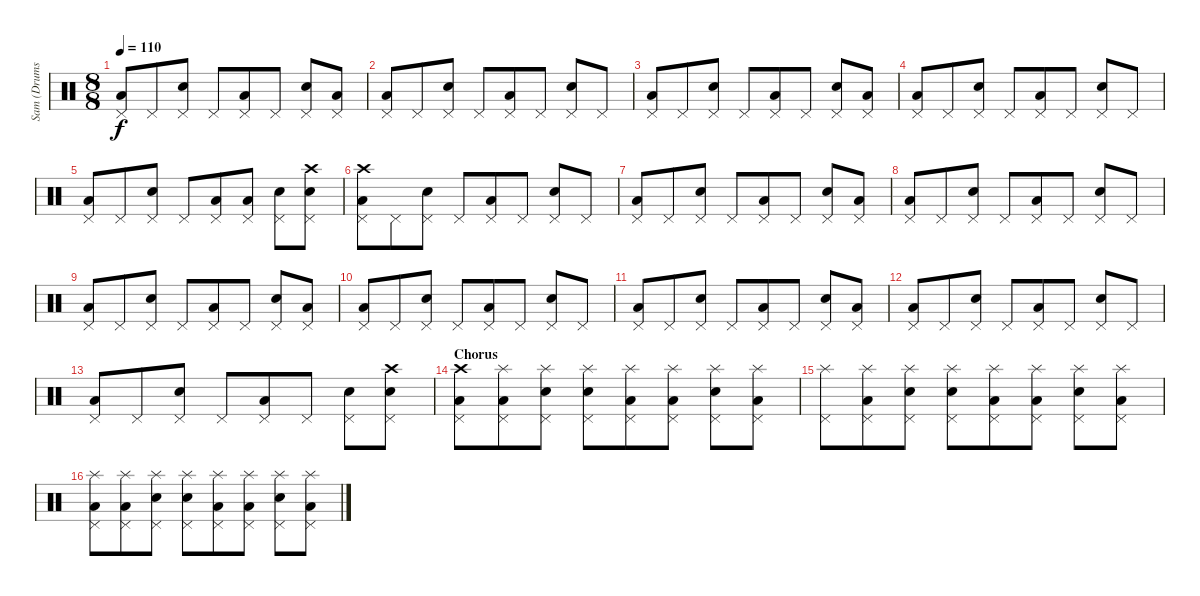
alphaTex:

\track ("Sam (Drums)" "Sam (Drums") {instrument percussion}
\staff {score}
\articulation defaults
\ts (8 8)
\tempo 110
\clef neutral
\ks c
("Low Tom (hit)" "Pedal Hi-Hat (hit)").8{dy f} "Pedal Hi-Hat (hit)".8 ("Snare (hit) 2" "Pedal Hi-Hat (hit)").8 "Pedal Hi-Hat (hit)".8 ("Low Tom (hit)" "Pedal Hi-Hat (hit)").8 "Pedal Hi-Hat (hit)".8 ("Snare (hit) 2" "Pedal Hi-Hat (hit)").8 ("Low Tom (hit)" "Pedal Hi-Hat (hit)").8 |
("Low Tom (hit)" "Pedal Hi-Hat (hit)").8 "Pedal Hi-Hat (hit)".8 ("Snare (hit) 2" "Pedal Hi-Hat (hit)").8 "Pedal Hi-Hat (hit)".8 ("Low Tom (hit)" "Pedal Hi-Hat (hit)").8 "Pedal Hi-Hat (hit)".8 ("Snare (hit) 2" "Pedal Hi-Hat (hit)").8 "Pedal Hi-Hat (hit)".8 |
("Low Tom (hit)" "Pedal Hi-Hat (hit)").8 "Pedal Hi-Hat (hit)".8 ("Snare (hit) 2" "Pedal Hi-Hat (hit)").8 "Pedal Hi-Hat (hit)".8 ("Low Tom (hit)" "Pedal Hi-Hat (hit)").8 "Pedal Hi-Hat (hit)".8 ("Snare (hit) 2" "Pedal Hi-Hat (hit)").8 ("Low Tom (hit)" "Pedal Hi-Hat (hit)").8 |
("Low Tom (hit)" "Pedal Hi-Hat (hit)").8 "Pedal Hi-Hat (hit)".8 ("Snare (hit) 2" "Pedal Hi-Hat (hit)").8 "Pedal Hi-Hat (hit)".8 ("Low Tom (hit)" "Pedal Hi-Hat (hit)").8 "Pedal Hi-Hat (hit)".8 ("Snare (hit) 2" "Pedal Hi-Hat (hit)").8 "Pedal Hi-Hat (hit)".8 |
("Low Tom (hit)" "Pedal Hi-Hat (hit)").8 "Pedal Hi-Hat (hit)".8 ("Snare (hit) 2" "Pedal Hi-Hat (hit)").8 "Pedal Hi-Hat (hit)".8 ("Low Tom (hit)" "Pedal Hi-Hat (hit)").8 ("Low Tom (hit)" "Pedal Hi-Hat (hit)").8 ("Snare (hit) 2" "Pedal Hi-Hat (hit)").8 ("Crash high (hit)" "Snare (hit) 2" "Pedal Hi-Hat (hit)").8 |
("Crash high (hit)" "Low Tom (hit)" "Pedal Hi-Hat (hit)").8 "Pedal Hi-Hat (hit)".8 ("Snare (hit) 2" "Pedal Hi-Hat (hit)").8 "Pedal Hi-Hat (hit)".8 ("Low Tom (hit)" "Pedal Hi-Hat (hit)").8 "Pedal Hi-Hat (hit)".8 ("Snare (hit) 2" "Pedal Hi-Hat (hit)").8 "Pedal Hi-Hat (hit)".8 |
("Low Tom (hit)" "Pedal Hi-Hat (hit)").8 "Pedal Hi-Hat (hit)".8 ("Snare (hit) 2" "Pedal Hi-Hat (hit)").8 "Pedal Hi-Hat (hit)".8 ("Low Tom (hit)" "Pedal Hi-Hat (hit)").8 "Pedal Hi-Hat (hit)".8 ("Snare (hit) 2" "Pedal Hi-Hat (hit)").8 ("Low Tom (hit)" "Pedal Hi-Hat (hit)").8 |
("Low Tom (hit)" "Pedal Hi-Hat (hit)").8 "Pedal Hi-Hat (hit)".8 ("Snare (hit) 2" "Pedal Hi-Hat (hit)").8 "Pedal Hi-Hat (hit)".8 ("Low Tom (hit)" "Pedal Hi-Hat (hit)").8 "Pedal Hi-Hat (hit)".8 ("Snare (hit) 2" "Pedal Hi-Hat (hit)").8 "Pedal Hi-Hat (hit)".8 |
("Low Tom (hit)" "Pedal Hi-Hat (hit)").8 "Pedal Hi-Hat (hit)".8 ("Snare (hit) 2" "Pedal Hi-Hat (hit)").8 "Pedal Hi-Hat (hit)".8 ("Low Tom (hit)" "Pedal Hi-Hat (hit)").8 "Pedal Hi-Hat (hit)".8 ("Snare (hit) 2" "Pedal Hi-Hat (hit)").8 ("Low Tom (hit)" "Pedal Hi-Hat (hit)").8 |
("Low Tom (hit)" "Pedal Hi-Hat (hit)").8 "Pedal Hi-Hat (hit)".8 ("Snare (hit) 2" "Pedal Hi-Hat (hit)").8 "Pedal Hi-Hat (hit)".8 ("Low Tom (hit)" "Pedal Hi-Hat (hit)").8 "Pedal Hi-Hat (hit)".8 ("Snare (hit) 2" "Pedal Hi-Hat (hit)").8 "Pedal Hi-Hat (hit)".8 |
("Low Tom (hit)" "Pedal Hi-Hat (hit)").8 "Pedal Hi-Hat (hit)".8 ("Snare (hit) 2" "Pedal Hi-Hat (hit)").8 "Pedal Hi-Hat (hit)".8 ("Low Tom (hit)" "Pedal Hi-Hat (hit)").8 "Pedal Hi-Hat (hit)".8 ("Snare (hit) 2" "Pedal Hi-Hat (hit)").8 ("Low Tom (hit)" "Pedal Hi-Hat (hit)").8 |
("Low Tom (hit)" "Pedal Hi-Hat (hit)").8 "Pedal Hi-Hat (hit)".8 ("Snare (hit) 2" "Pedal Hi-Hat (hit)").8 "Pedal Hi-Hat (hit)".8 ("Low Tom (hit)" "Pedal Hi-Hat (hit)").8 "Pedal Hi-Hat (hit)".8 ("Snare (hit) 2" "Pedal Hi-Hat (hit)").8 "Pedal Hi-Hat (hit)".8 |
("Low Tom (hit)" "Pedal Hi-Hat (hit)").8 "Pedal Hi-Hat (hit)".8 ("Snare (hit) 2" "Pedal Hi-Hat (hit)").8 "Pedal Hi-Hat (hit)".8 ("Low Tom (hit)" "Pedal Hi-Hat (hit)").8 "Pedal Hi-Hat (hit)".8 ("Snare (hit) 2" "Pedal Hi-Hat (hit)").8 ("Crash high (hit)" "Snare (hit) 2" "Pedal Hi-Hat (hit)").8 |
\section ("" "Chorus")
("Crash high (hit)" "Low Tom (hit)" "Pedal Hi-Hat (hit)").8 ("Splash (hit)" "Low Tom (hit)" "Pedal Hi-Hat (hit)").8 ("Splash (hit)" "Snare (hit) 2" "Pedal Hi-Hat (hit)").8 ("Splash (hit)" "Snare (hit) 2" "Pedal Hi-Hat (hit)").8 ("Splash (hit)" "Low Tom (hit)" "Pedal Hi-Hat (hit)").8 ("Splash (hit)" "Low Tom (hit)" "Pedal Hi-Hat (hit)").8 ("Splash (hit)" "Snare (hit) 2" "Pedal Hi-Hat (hit)").8 ("Splash (hit)" "Low Tom (hit)" "Pedal Hi-Hat (hit)").8 |
("Splash (hit)" "Pedal Hi-Hat (hit)").8 ("Splash (hit)" "Low Tom (hit)" "Pedal Hi-Hat (hit)").8 ("Splash (hit)" "Snare (hit) 2" "Pedal Hi-Hat (hit)").8 ("Splash (hit)" "Snare (hit) 2" "Pedal Hi-Hat (hit)").8 ("Splash (hit)" "Low Tom (hit)" "Pedal Hi-Hat (hit)").8 ("Splash (hit)" "Low Tom (hit)" "Pedal Hi-Hat (hit)").8 ("Splash (hit)" "Snare (hit) 2" "Pedal Hi-Hat (hit)").8 ("Splash (hit)" "Low Tom (hit)" "Pedal Hi-Hat (hit)").8 |
("Splash (hit)" "Low Tom (hit)" "Pedal Hi-Hat (hit)").8 ("Splash (hit)" "Low Tom (hit)" "Pedal Hi-Hat (hit)").8 ("Splash (hit)" "Snare (hit) 2" "Pedal Hi-Hat (hit)").8 ("Splash (hit)" "Snare (hit) 2" "Pedal Hi-Hat (hit)").8 ("Splash (hit)" "Low Tom (hit)" "Pedal Hi-Hat (hit)").8 ("Splash (hit)" "Low Tom (hit)" "Pedal Hi-Hat (hit)").8 ("Splash (hit)" "Snare (hit) 2" "Pedal Hi-Hat (hit)").8 ("Splash (hit)" "Low Tom (hit)" "Pedal Hi-Hat (hit)").8
